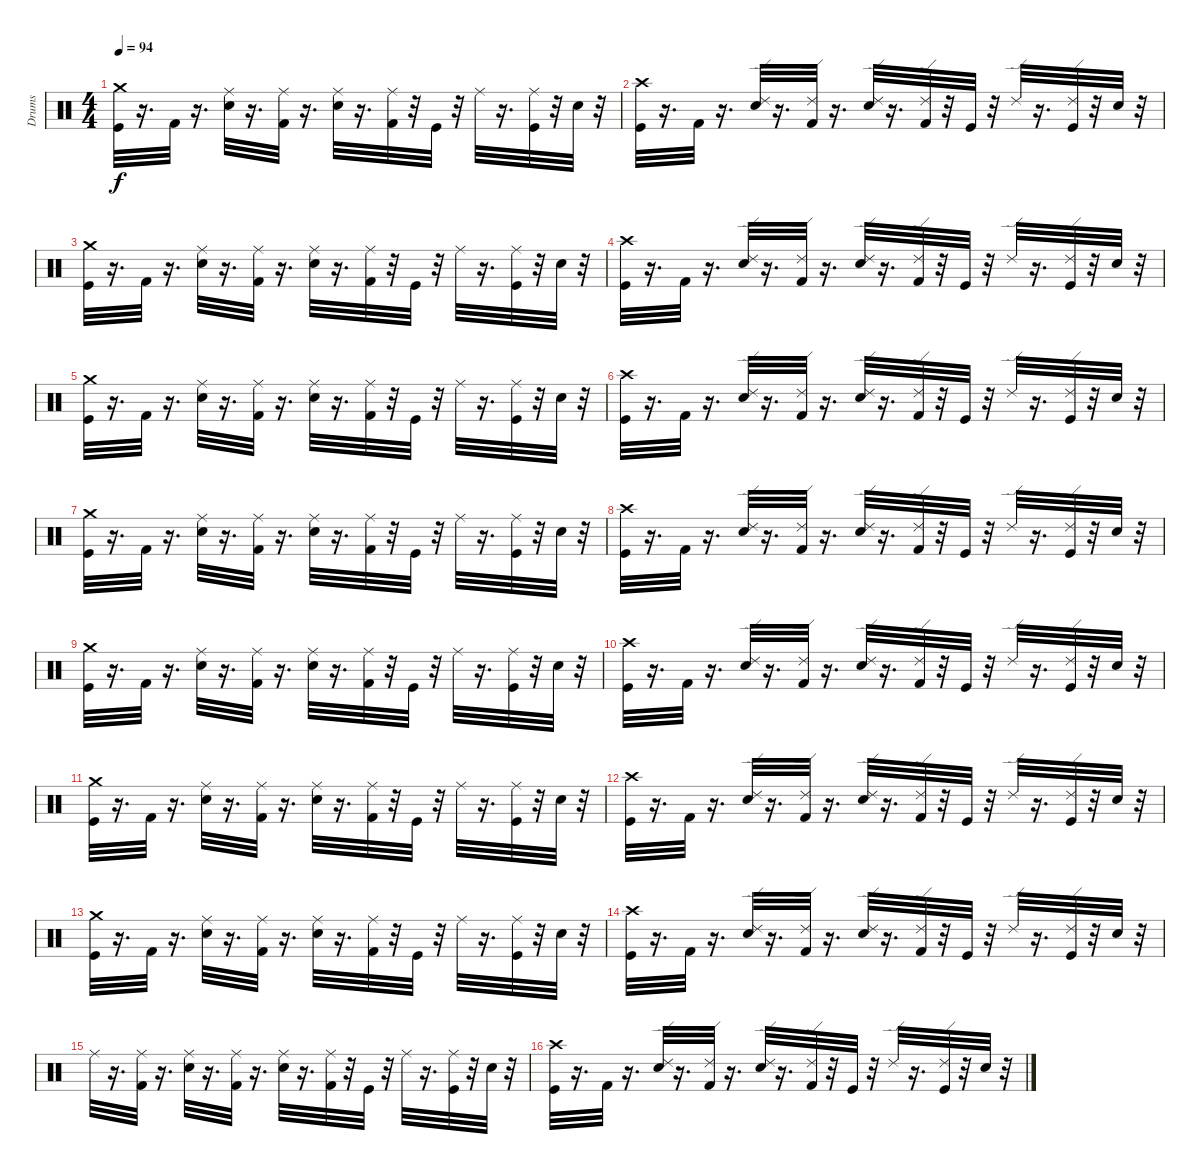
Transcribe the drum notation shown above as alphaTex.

\track ("Drums" "Drums") {instrument percussion}
\staff {score}
\articulation defaults
\ts (4 4)
\tempo 94
\clef neutral
\ks c
("Crash medium (hit)" "Kick (hit)").32{dy f} r.16{d} "Kick (hit) 2".32 r.16{d} ("Ride (middle)" "Electric Snare (hit)").32 r.16{d} ("Ride (middle)" "Kick (hit) 2").32 r.16{d} ("Ride (middle)" "Electric Snare (hit)").32 r.16{d} ("Ride (middle)" "Kick (hit) 2").32 r.32 "Kick (hit)".32 r.32 "Ride (middle)".32 r.16{d} ("Ride (middle)" "Kick (hit)").32 r.32 "Electric Snare (hit)".32 r.32 |
("Crash high (hit)" "Kick (hit)").32 r.16{d} "Kick (hit) 2".32 r.16{d} ("Ride (edge) 2" "Electric Snare (hit)").32 r.16{d} ("Ride (edge) 2" "Kick (hit) 2").32 r.16{d} ("Ride (edge) 2" "Electric Snare (hit)").32 r.16{d} ("Ride (edge) 2" "Kick (hit) 2").32 r.32 "Kick (hit)".32 r.32 "Ride (edge) 2".32 r.16{d} ("Ride (edge) 2" "Kick (hit)").32 r.32 "Electric Snare (hit)".32 r.32 |
("Crash medium (hit)" "Kick (hit)").32 r.16{d} "Kick (hit) 2".32 r.16{d} ("Ride (middle)" "Electric Snare (hit)").32 r.16{d} ("Ride (middle)" "Kick (hit) 2").32 r.16{d} ("Ride (middle)" "Electric Snare (hit)").32 r.16{d} ("Ride (middle)" "Kick (hit) 2").32 r.32 "Kick (hit)".32 r.32 "Ride (middle)".32 r.16{d} ("Ride (middle)" "Kick (hit)").32 r.32 "Electric Snare (hit)".32 r.32 |
("Crash high (hit)" "Kick (hit)").32 r.16{d} "Kick (hit) 2".32 r.16{d} ("Ride (edge) 2" "Electric Snare (hit)").32 r.16{d} ("Ride (edge) 2" "Kick (hit) 2").32 r.16{d} ("Ride (edge) 2" "Electric Snare (hit)").32 r.16{d} ("Ride (edge) 2" "Kick (hit) 2").32 r.32 "Kick (hit)".32 r.32 "Ride (edge) 2".32 r.16{d} ("Ride (edge) 2" "Kick (hit)").32 r.32 "Electric Snare (hit)".32 r.32 |
("Crash medium (hit)" "Kick (hit)").32 r.16{d} "Kick (hit) 2".32 r.16{d} ("Ride (middle)" "Electric Snare (hit)").32 r.16{d} ("Ride (middle)" "Kick (hit) 2").32 r.16{d} ("Ride (middle)" "Electric Snare (hit)").32 r.16{d} ("Ride (middle)" "Kick (hit) 2").32 r.32 "Kick (hit)".32 r.32 "Ride (middle)".32 r.16{d} ("Ride (middle)" "Kick (hit)").32 r.32 "Electric Snare (hit)".32 r.32 |
("Crash high (hit)" "Kick (hit)").32 r.16{d} "Kick (hit) 2".32 r.16{d} ("Ride (edge) 2" "Electric Snare (hit)").32 r.16{d} ("Ride (edge) 2" "Kick (hit) 2").32 r.16{d} ("Ride (edge) 2" "Electric Snare (hit)").32 r.16{d} ("Ride (edge) 2" "Kick (hit) 2").32 r.32 "Kick (hit)".32 r.32 "Ride (edge) 2".32 r.16{d} ("Ride (edge) 2" "Kick (hit)").32 r.32 "Electric Snare (hit)".32 r.32 |
("Crash medium (hit)" "Kick (hit)").32 r.16{d} "Kick (hit) 2".32 r.16{d} ("Ride (middle)" "Electric Snare (hit)").32 r.16{d} ("Ride (middle)" "Kick (hit) 2").32 r.16{d} ("Ride (middle)" "Electric Snare (hit)").32 r.16{d} ("Ride (middle)" "Kick (hit) 2").32 r.32 "Kick (hit)".32 r.32 "Ride (middle)".32 r.16{d} ("Ride (middle)" "Kick (hit)").32 r.32 "Electric Snare (hit)".32 r.32 |
("Crash high (hit)" "Kick (hit)").32 r.16{d} "Kick (hit) 2".32 r.16{d} ("Ride (edge) 2" "Electric Snare (hit)").32 r.16{d} ("Ride (edge) 2" "Kick (hit) 2").32 r.16{d} ("Ride (edge) 2" "Electric Snare (hit)").32 r.16{d} ("Ride (edge) 2" "Kick (hit) 2").32 r.32 "Kick (hit)".32 r.32 "Ride (edge) 2".32 r.16{d} ("Ride (edge) 2" "Kick (hit)").32 r.32 "Electric Snare (hit)".32 r.32 |
("Crash medium (hit)" "Kick (hit)").32 r.16{d} "Kick (hit) 2".32 r.16{d} ("Ride (middle)" "Electric Snare (hit)").32 r.16{d} ("Ride (middle)" "Kick (hit) 2").32 r.16{d} ("Ride (middle)" "Electric Snare (hit)").32 r.16{d} ("Ride (middle)" "Kick (hit) 2").32 r.32 "Kick (hit)".32 r.32 "Ride (middle)".32 r.16{d} ("Ride (middle)" "Kick (hit)").32 r.32 "Electric Snare (hit)".32 r.32 |
("Crash high (hit)" "Kick (hit)").32 r.16{d} "Kick (hit) 2".32 r.16{d} ("Ride (edge) 2" "Electric Snare (hit)").32 r.16{d} ("Ride (edge) 2" "Kick (hit) 2").32 r.16{d} ("Ride (edge) 2" "Electric Snare (hit)").32 r.16{d} ("Ride (edge) 2" "Kick (hit) 2").32 r.32 "Kick (hit)".32 r.32 "Ride (edge) 2".32 r.16{d} ("Ride (edge) 2" "Kick (hit)").32 r.32 "Electric Snare (hit)".32 r.32 |
("Crash medium (hit)" "Kick (hit)").32 r.16{d} "Kick (hit) 2".32 r.16{d} ("Ride (middle)" "Electric Snare (hit)").32 r.16{d} ("Ride (middle)" "Kick (hit) 2").32 r.16{d} ("Ride (middle)" "Electric Snare (hit)").32 r.16{d} ("Ride (middle)" "Kick (hit) 2").32 r.32 "Kick (hit)".32 r.32 "Ride (middle)".32 r.16{d} ("Ride (middle)" "Kick (hit)").32 r.32 "Electric Snare (hit)".32 r.32 |
("Crash high (hit)" "Kick (hit)").32 r.16{d} "Kick (hit) 2".32 r.16{d} ("Ride (edge) 2" "Electric Snare (hit)").32 r.16{d} ("Ride (edge) 2" "Kick (hit) 2").32 r.16{d} ("Ride (edge) 2" "Electric Snare (hit)").32 r.16{d} ("Ride (edge) 2" "Kick (hit) 2").32 r.32 "Kick (hit)".32 r.32 "Ride (edge) 2".32 r.16{d} ("Ride (edge) 2" "Kick (hit)").32 r.32 "Electric Snare (hit)".32 r.32 |
("Crash medium (hit)" "Kick (hit)").32 r.16{d} "Kick (hit) 2".32 r.16{d} ("Ride (middle)" "Electric Snare (hit)").32 r.16{d} ("Ride (middle)" "Kick (hit) 2").32 r.16{d} ("Ride (middle)" "Electric Snare (hit)").32 r.16{d} ("Ride (middle)" "Kick (hit) 2").32 r.32 "Kick (hit)".32 r.32 "Ride (middle)".32 r.16{d} ("Ride (middle)" "Kick (hit)").32 r.32 "Electric Snare (hit)".32 r.32 |
("Crash high (hit)" "Kick (hit)").32 r.16{d} "Kick (hit) 2".32 r.16{d} ("Ride (edge) 2" "Electric Snare (hit)").32 r.16{d} ("Ride (edge) 2" "Kick (hit) 2").32 r.16{d} ("Ride (edge) 2" "Electric Snare (hit)").32 r.16{d} ("Ride (edge) 2" "Kick (hit) 2").32 r.32 "Kick (hit)".32 r.32 "Ride (edge) 2".32 r.16{d} ("Ride (edge) 2" "Kick (hit)").32 r.32 "Electric Snare (hit)".32 r.32 |
"Ride (middle)".32 r.16{d} ("Ride (middle)" "Kick (hit) 2").32 r.16{d} ("Ride (middle)" "Electric Snare (hit)").32 r.16{d} ("Ride (middle)" "Kick (hit) 2").32 r.16{d} ("Ride (middle)" "Electric Snare (hit)").32 r.16{d} ("Ride (middle)" "Kick (hit) 2").32 r.32 "Kick (hit)".32 r.32 "Ride (middle)".32 r.16{d} ("Ride (middle)" "Kick (hit)").32 r.32 "Electric Snare (hit)".32 r.32 |
("Crash high (hit)" "Kick (hit)").32 r.16{d} "Kick (hit) 2".32 r.16{d} ("Ride (edge) 2" "Electric Snare (hit)").32 r.16{d} ("Ride (edge) 2" "Kick (hit) 2").32 r.16{d} ("Ride (edge) 2" "Electric Snare (hit)").32 r.16{d} ("Ride (edge) 2" "Kick (hit) 2").32 r.32 "Kick (hit)".32 r.32 "Ride (edge) 2".32 r.16{d} ("Ride (edge) 2" "Kick (hit)").32 r.32 "Electric Snare (hit)".32 r.32
